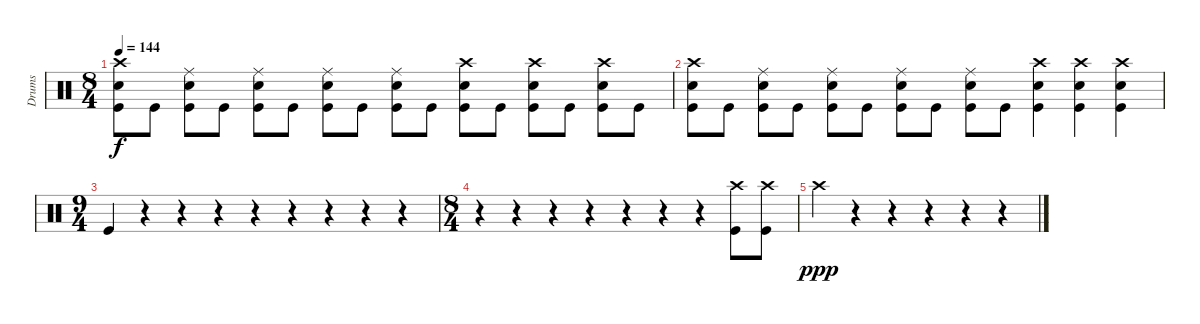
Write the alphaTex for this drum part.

\track ("Drums" "Drums") {instrument percussion}
\staff {score}
\articulation defaults
\ts (8 4)
\tempo 144
\clef neutral
\ks c
("Crash high (hit)" "Snare (hit) 2" "Kick (hit)").8{dy f} "Kick (hit)".8 ("Ride (middle)" "Snare (hit) 2" "Kick (hit)").8 "Kick (hit)".8 ("Ride (middle)" "Snare (hit) 2" "Kick (hit)").8 "Kick (hit)".8 ("Ride (middle)" "Snare (hit) 2" "Kick (hit)").8 "Kick (hit)".8 ("Ride (middle)" "Snare (hit) 2" "Kick (hit)").8 "Kick (hit)".8 ("Crash high (hit)" "Snare (hit) 2" "Kick (hit)").8 "Kick (hit)".8 ("Crash high (hit)" "Snare (hit) 2" "Kick (hit)").8 "Kick (hit)".8 ("Crash high (hit)" "Snare (hit) 2" "Kick (hit)").8 "Kick (hit)".8 |
("Crash high (hit)" "Snare (hit) 2" "Kick (hit)").8 "Kick (hit)".8 ("Ride (middle)" "Snare (hit) 2" "Kick (hit)").8 "Kick (hit)".8 ("Ride (middle)" "Snare (hit) 2" "Kick (hit)").8 "Kick (hit)".8 ("Ride (middle)" "Snare (hit) 2" "Kick (hit)").8 "Kick (hit)".8 ("Ride (middle)" "Snare (hit) 2" "Kick (hit)").8 "Kick (hit)".8 ("Crash high (hit)" "Snare (hit) 2" "Kick (hit)").4 ("Crash high (hit)" "Snare (hit) 2" "Kick (hit)").4 ("Crash high (hit)" "Snare (hit) 2" "Kick (hit)").4 |
\ts (9 4)
"Kick (hit)".4 r.4 r.4 r.4 r.4 r.4 r.4 r.4 r.4 |
\ts (8 4)
r.4 r.4 r.4 r.4 r.4 r.4 r.4 ("Crash high (hit)" "Kick (hit)").8 ("Crash high (hit)" "Kick (hit)").8 |
"Crash high (hit)".4{dy ppp} r.4 r.4 r.4 r.4 r.4
